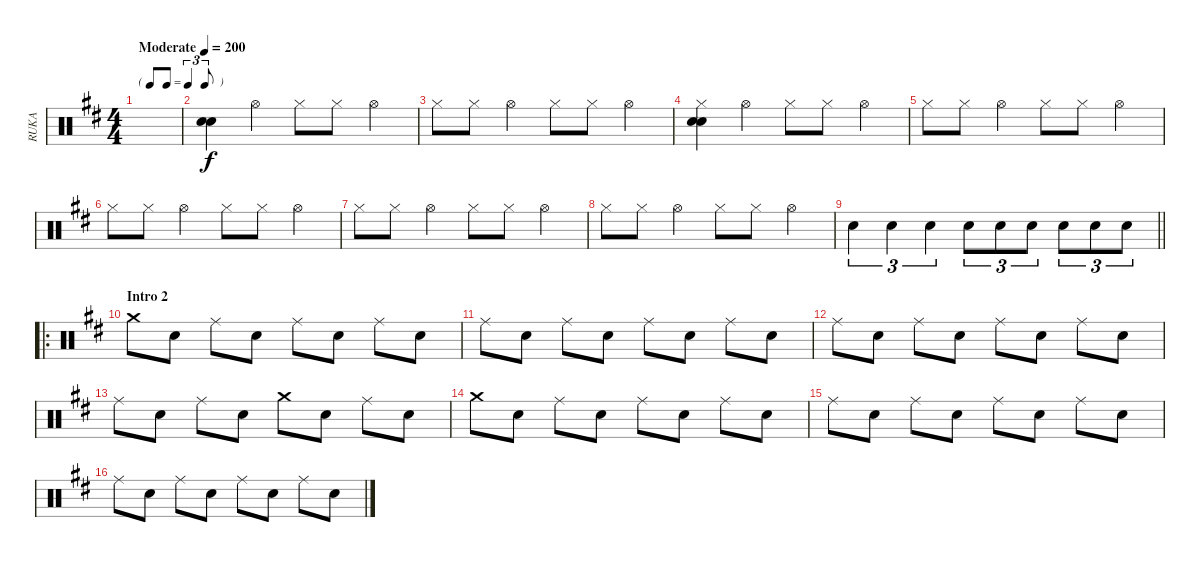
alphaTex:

\track ("RUKA" "RUKA") {instrument percussion}
\staff {score}
\articulation defaults
\ts (4 4)
\tf triplet8th
\tempo (200 "Moderate")
\clef neutral
\ks d
|
("Snare (hit) 2" "Snare (hit) 2").4 "Hi-Hat (open)".4 "Hi-Hat (closed)".8 "Hi-Hat (closed)".8 "Hi-Hat (open)".4 |
"Hi-Hat (closed)".8 "Hi-Hat (closed)".8 "Hi-Hat (open)".4 "Hi-Hat (closed)".8 "Hi-Hat (closed)".8 "Hi-Hat (open)".4 |
("Hi-Hat (closed)" "Snare (hit) 2" "Snare (hit) 2").4 "Hi-Hat (open)".4 "Hi-Hat (closed)".8 "Hi-Hat (closed)".8 "Hi-Hat (open)".4 |
"Hi-Hat (closed)".8 "Hi-Hat (closed)".8 "Hi-Hat (open)".4 "Hi-Hat (closed)".8 "Hi-Hat (closed)".8 "Hi-Hat (open)".4 |
"Hi-Hat (closed)".8 "Hi-Hat (closed)".8 "Hi-Hat (open)".4 "Hi-Hat (closed)".8 "Hi-Hat (closed)".8 "Hi-Hat (open)".4 |
"Hi-Hat (closed)".8 "Hi-Hat (closed)".8 "Hi-Hat (open)".4 "Hi-Hat (closed)".8 "Hi-Hat (closed)".8 "Hi-Hat (open)".4 |
"Hi-Hat (closed)".8 "Hi-Hat (closed)".8 "Hi-Hat (open)".4 "Hi-Hat (closed)".8 "Hi-Hat (closed)".8 "Hi-Hat (open)".4 |
\barLineRight lightlight "Snare (hit) 2".4{tu (3 2)} "Snare (hit) 2".4{tu (3 2)} "Snare (hit) 2".4{tu (3 2)} "Snare (hit) 2".8{tu (3 2)} "Snare (hit) 2".8{tu (3 2)} "Snare (hit) 2".8{tu (3 2)} "Snare (hit) 2".8{tu (3 2)} "Snare (hit) 2".8{tu (3 2)} "Snare (hit) 2".8{tu (3 2)}
|
\ro
\section ("" "Intro 2")
"Crash medium (hit)".8 "Snare (hit) 2".8 "Ride (middle)".8 "Snare (hit) 2".8 "Ride (middle)".8 "Snare (hit) 2".8 "Ride (middle)".8 "Snare (hit) 2".8 |
"Ride (middle)".8 "Snare (hit) 2".8 "Ride (middle)".8 "Snare (hit) 2".8 "Ride (middle)".8 "Snare (hit) 2".8 "Ride (middle)".8 "Snare (hit) 2".8 |
"Ride (middle)".8 "Snare (hit) 2".8 "Ride (middle)".8 "Snare (hit) 2".8 "Ride (middle)".8 "Snare (hit) 2".8 "Ride (middle)".8 "Snare (hit) 2".8 |
"Ride (middle)".8 "Snare (hit) 2".8 "Ride (middle)".8 "Snare (hit) 2".8 "Crash medium (hit)".8 "Snare (hit) 2".8 "Ride (middle)".8 "Snare (hit) 2".8 |
"Crash medium (hit)".8 "Snare (hit) 2".8 "Ride (middle)".8 "Snare (hit) 2".8 "Ride (middle)".8 "Snare (hit) 2".8 "Ride (middle)".8 "Snare (hit) 2".8 |
"Ride (middle)".8 "Snare (hit) 2".8 "Ride (middle)".8 "Snare (hit) 2".8 "Ride (middle)".8 "Snare (hit) 2".8 "Ride (middle)".8 "Snare (hit) 2".8 |
"Ride (middle)".8 "Snare (hit) 2".8 "Ride (middle)".8 "Snare (hit) 2".8 "Ride (middle)".8 "Snare (hit) 2".8 "Ride (middle)".8 "Snare (hit) 2".8
